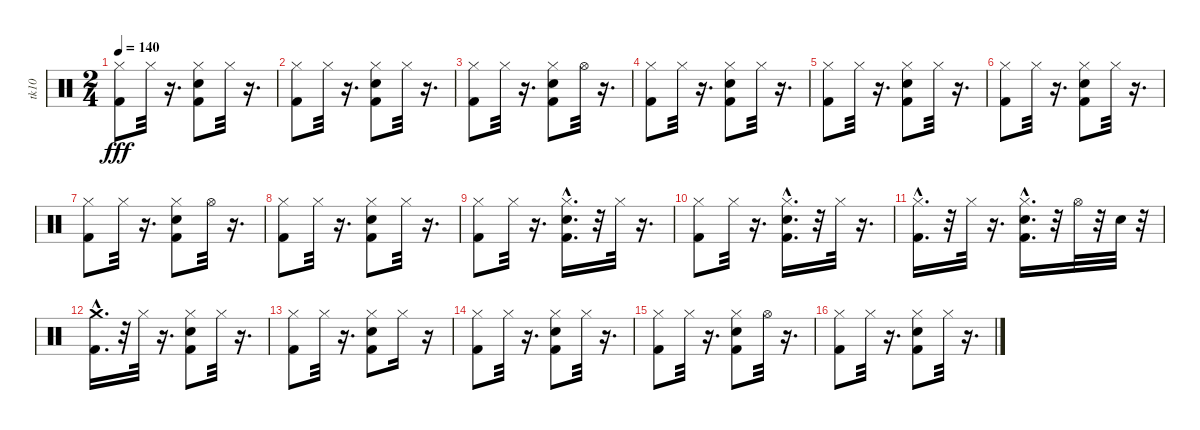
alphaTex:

\track ("tk10" "tk10") {instrument percussion}
\staff {score}
\articulation defaults
\ts (2 4)
\tempo 140
\clef neutral
\ks c
("Kick (hit) 2" "Hi-Hat (closed)").8{dy fff} "Hi-Hat (closed)".32 r.16{d} ("Snare (hit) 2" "Kick (hit) 2" "Hi-Hat (closed)").8 "Hi-Hat (closed)".32 r.16{d} |
("Kick (hit) 2" "Hi-Hat (closed)").8 "Hi-Hat (closed)".32 r.16{d} ("Kick (hit) 2" "Hi-Hat (closed)" "Snare (hit) 2").8 "Hi-Hat (closed)".32 r.16{d} |
("Kick (hit) 2" "Hi-Hat (closed)").8 "Hi-Hat (closed)".32 r.16{d} ("Snare (hit) 2" "Kick (hit) 2" "Hi-Hat (closed)").8 "Hi-Hat (open)".32 r.16{d} |
("Kick (hit) 2" "Hi-Hat (closed)").8 "Hi-Hat (closed)".32 r.16{d} ("Snare (hit) 2" "Kick (hit) 2" "Hi-Hat (closed)").8 "Hi-Hat (closed)".32 r.16{d} |
("Kick (hit) 2" "Hi-Hat (closed)").8 "Hi-Hat (closed)".32 r.16{d} ("Snare (hit) 2" "Kick (hit) 2" "Hi-Hat (closed)").8 "Hi-Hat (closed)".32 r.16{d} |
("Kick (hit) 2" "Hi-Hat (closed)").8 "Hi-Hat (closed)".32 r.16{d} ("Snare (hit) 2" "Kick (hit) 2" "Hi-Hat (closed)").8 "Hi-Hat (closed)".32 r.16{d} |
("Kick (hit) 2" "Hi-Hat (closed)").8 "Hi-Hat (closed)".32 r.16{d} ("Snare (hit) 2" "Kick (hit) 2" "Hi-Hat (closed)").8 "Hi-Hat (open)".32 r.16{d} |
("Kick (hit) 2" "Hi-Hat (closed)").8 "Hi-Hat (closed)".32 r.16{d} ("Snare (hit) 2" "Kick (hit) 2" "Hi-Hat (closed)").8 "Hi-Hat (closed)".32 r.16{d} |
("Kick (hit) 2" "Hi-Hat (closed)").8 "Hi-Hat (closed)".32 r.16{d} ("Snare (hit) 2"{hac} "Kick (hit) 2"{hac} "Hi-Hat (closed)").16{d} r.32 "Hi-Hat (closed)".32 r.16{d} |
("Kick (hit) 2" "Hi-Hat (closed)").8 "Hi-Hat (closed)".32 r.16{d} ("Snare (hit) 2"{hac} "Kick (hit) 2"{hac} "Hi-Hat (closed)").16{d} r.32 "Hi-Hat (closed)".32 r.16{d} |
("Kick (hit) 2"{hac} "Hi-Hat (closed)").16{d} r.32 "Hi-Hat (closed)".32 r.16{d} ("Snare (hit) 2"{hac} "Kick (hit) 2"{hac} "Hi-Hat (closed)").16{d} r.32 "Hi-Hat (open)".32 r.32 "Snare (hit) 2".32 r.32 |
("Kick (hit) 2"{hac} "Crash medium (hit)").16{d} r.32 "Hi-Hat (closed)".32 r.16{d} ("Snare (hit) 2" "Hi-Hat (closed)" "Kick (hit) 2").8 "Hi-Hat (closed)".32 r.16{d} |
("Kick (hit) 2" "Hi-Hat (closed)").8 "Hi-Hat (closed)".32 r.16{d} ("Snare (hit) 2" "Kick (hit) 2" "Hi-Hat (closed)").8 "Hi-Hat (closed)".16 r.16 |
("Kick (hit) 2" "Hi-Hat (closed)").8 "Hi-Hat (closed)".32 r.16{d} ("Snare (hit) 2" "Kick (hit) 2" "Hi-Hat (closed)").8 "Hi-Hat (closed)".32 r.16{d} |
("Kick (hit) 2" "Hi-Hat (closed)").8 "Hi-Hat (closed)".32 r.16{d} ("Hi-Hat (closed)" "Kick (hit) 2" "Snare (hit) 2").8 "Hi-Hat (open)".32 r.16{d} |
("Kick (hit) 2" "Hi-Hat (closed)").8 "Hi-Hat (closed)".32 r.16{d} ("Snare (hit) 2" "Kick (hit) 2" "Hi-Hat (closed)").8 "Hi-Hat (closed)".32 r.16{d}
